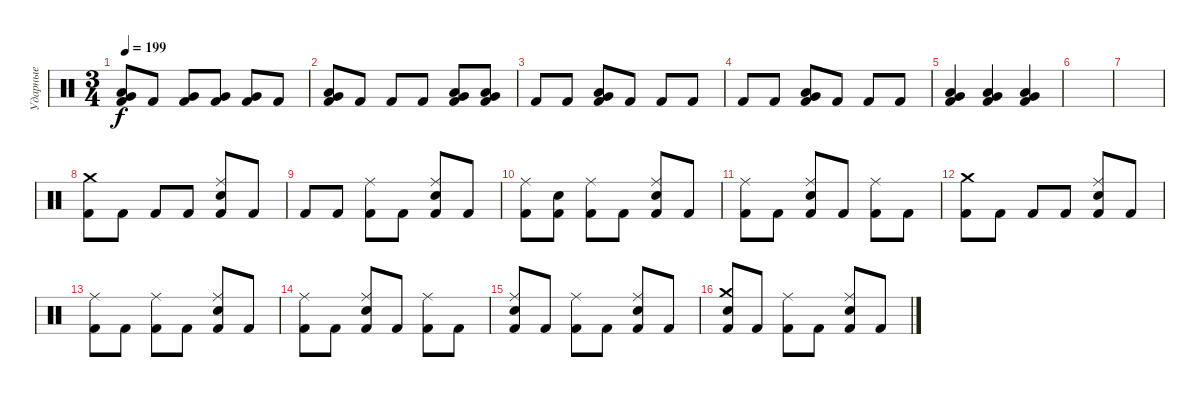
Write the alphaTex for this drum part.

\track ("Ударные" "Ударные") {instrument percussion}
\staff {score}
\articulation defaults
\ts (3 4)
\tempo 199
\clef neutral
\ks c
("Low Tom (hit)" "Very Low Tom (hit)" "Kick (hit) 2").8{dy f} "Kick (hit) 2".8 ("Very Low Tom (hit)" "Kick (hit) 2").8 ("Very Low Tom (hit)" "Kick (hit) 2").8 ("Very Low Tom (hit)" "Kick (hit) 2").8 "Kick (hit) 2".8 |
("Low Tom (hit)" "Very Low Tom (hit)" "Kick (hit) 2").8 "Kick (hit) 2".8 "Kick (hit) 2".8 "Kick (hit) 2".8 ("Low Tom (hit)" "Very Low Tom (hit)" "Kick (hit) 2").8 ("Low Tom (hit)" "Very Low Tom (hit)" "Kick (hit) 2").8 |
"Kick (hit) 2".8 "Kick (hit) 2".8 ("Low Tom (hit)" "Very Low Tom (hit)" "Kick (hit) 2").8 "Kick (hit) 2".8 "Kick (hit) 2".8 "Kick (hit) 2".8 |
"Kick (hit) 2".8 "Kick (hit) 2".8 ("Low Tom (hit)" "Very Low Tom (hit)" "Kick (hit) 2").8 "Kick (hit) 2".8 "Kick (hit) 2".8 "Kick (hit) 2".8 |
("Low Tom (hit)" "Very Low Tom (hit)" "Kick (hit) 2").4 ("Low Tom (hit)" "Very Low Tom (hit)" "Kick (hit) 2").4 ("Low Tom (hit)" "Very Low Tom (hit)" "Kick (hit) 2").4 |
|
|
("Crash medium (hit)" "Kick (hit) 2").8 "Kick (hit) 2".8 "Kick (hit) 2".8 "Kick (hit) 2".8 ("Ride (middle)" "Snare (hit) 2" "Kick (hit) 2").8 "Kick (hit) 2".8 |
"Kick (hit) 2".8 "Kick (hit) 2".8 ("Ride (middle)" "Kick (hit) 2").8 "Kick (hit) 2".8 ("Ride (middle)" "Snare (hit) 2" "Kick (hit) 2").8 "Kick (hit) 2".8 |
("Ride (middle)" "Kick (hit) 2").8 ("Snare (hit) 2" "Kick (hit) 2").8 ("Ride (middle)" "Kick (hit) 2").8 "Kick (hit) 2".8 ("Ride (middle)" "Snare (hit) 2" "Kick (hit) 2").8 "Kick (hit) 2".8 |
("Ride (middle)" "Kick (hit) 2").8 "Kick (hit) 2".8 ("Ride (middle)" "Snare (hit) 2" "Kick (hit) 2").8 "Kick (hit) 2".8 ("Ride (middle)" "Kick (hit) 2").8 "Kick (hit) 2".8 |
("Crash medium (hit)" "Kick (hit) 2").8 "Kick (hit) 2".8 "Kick (hit) 2".8 "Kick (hit) 2".8 ("Ride (middle)" "Snare (hit) 2" "Kick (hit) 2").8 "Kick (hit) 2".8 |
("Ride (middle)" "Kick (hit) 2").8 "Kick (hit) 2".8 ("Ride (middle)" "Kick (hit) 2").8 "Kick (hit) 2".8 ("Ride (middle)" "Snare (hit) 2" "Kick (hit) 2").8 "Kick (hit) 2".8 |
("Ride (middle)" "Kick (hit) 2").8 "Kick (hit) 2".8 ("Ride (middle)" "Snare (hit) 2" "Kick (hit) 2").8 "Kick (hit) 2".8 ("Ride (middle)" "Kick (hit) 2").8 "Kick (hit) 2".8 |
("Ride (middle)" "Snare (hit) 2" "Kick (hit) 2").8 "Kick (hit) 2".8 ("Ride (middle)" "Kick (hit) 2").8 "Kick (hit) 2".8 ("Ride (middle)" "Snare (hit) 2" "Kick (hit) 2").8 "Kick (hit) 2".8 |
("Crash medium (hit)" "Snare (hit) 2" "Kick (hit) 2").8 "Kick (hit) 2".8 ("Ride (middle)" "Kick (hit) 2").8 "Kick (hit) 2".8 ("Ride (middle)" "Snare (hit) 2" "Kick (hit) 2").8 "Kick (hit) 2".8
